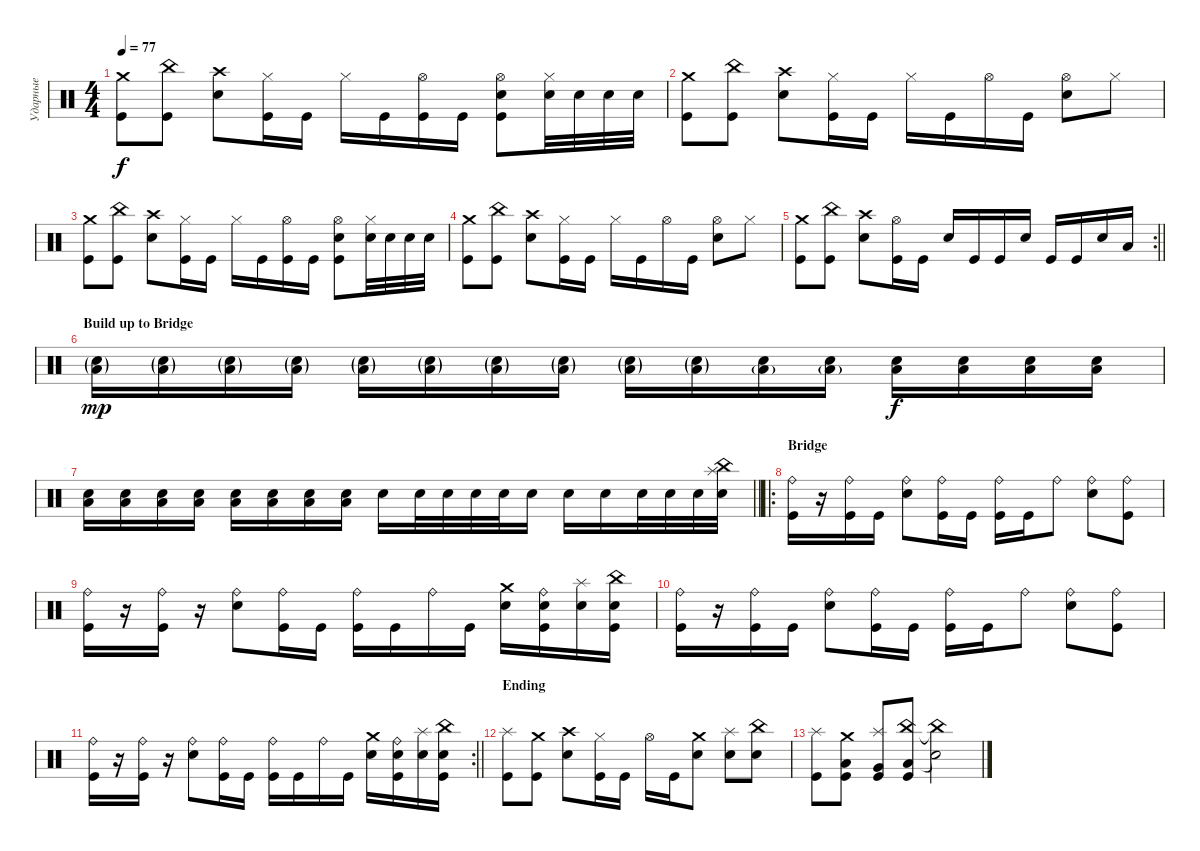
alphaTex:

\track ("Ударные" "Ударные") {instrument percussion}
\staff {score}
\articulation defaults
\ts (4 4)
\tempo 77
\clef neutral
\ks c
("Crash medium (hit)" "Kick (hit)").8{dy f} ("China (hit)" "Kick (hit)").8 ("Crash high (hit)" "Snare (hit) 2").8 ("Hi-Hat (closed)" "Kick (hit)").16 "Kick (hit)".16 "Hi-Hat (closed)".16 "Kick (hit)".16 ("Hi-Hat (open)" "Kick (hit)").16 "Kick (hit)".16 ("Hi-Hat (open)" "Snare (hit) 2" "Kick (hit)").8 ("Hi-Hat (closed)" "Snare (hit) 2").32 "Snare (hit) 2".32 "Snare (hit) 2".32 "Snare (hit) 2".32 |
("Crash medium (hit)" "Kick (hit)").8 ("China (hit)" "Kick (hit)").8 ("Crash high (hit)" "Snare (hit) 2").8 ("Hi-Hat (closed)" "Kick (hit)").16 "Kick (hit)".16 "Hi-Hat (closed)".16 "Kick (hit)".16 "Hi-Hat (open)".16 "Kick (hit)".16 ("Hi-Hat (open)" "Snare (hit) 2").8 "Hi-Hat (closed)".8 |
("Crash medium (hit)" "Kick (hit)").8 ("China (hit)" "Kick (hit)").8 ("Crash high (hit)" "Snare (hit) 2").8 ("Hi-Hat (closed)" "Kick (hit)").16 "Kick (hit)".16 "Hi-Hat (closed)".16 "Kick (hit)".16 ("Hi-Hat (open)" "Kick (hit)").16 "Kick (hit)".16 ("Hi-Hat (open)" "Snare (hit) 2" "Kick (hit)").8 ("Hi-Hat (closed)" "Snare (hit) 2").32 "Snare (hit) 2".32 "Snare (hit) 2".32 "Snare (hit) 2".32 |
("Crash medium (hit)" "Kick (hit)").8 ("China (hit)" "Kick (hit)").8 ("Crash high (hit)" "Snare (hit) 2").8 ("Hi-Hat (closed)" "Kick (hit)").16 "Kick (hit)".16 "Hi-Hat (closed)".16 "Kick (hit)".16 "Hi-Hat (open)".16 "Kick (hit)".16 ("Hi-Hat (open)" "Snare (hit) 2").8 "Hi-Hat (closed)".8 |
\rc 2
\barLineRight lightlight
("Crash medium (hit)" "Kick (hit)").8 ("China (hit)" "Kick (hit)").8 ("Crash high (hit)" "Snare (hit) 2").8 ("Hi-Hat (open)" "Kick (hit)").16 "Kick (hit)".16 "Snare (hit) 2".16 "Kick (hit)".16 "Kick (hit)".16 "Snare (hit) 2".16 "Kick (hit)".16 "Kick (hit)".16 "Snare (hit) 2".16 "Low Floor Tom (hit)".16 |
\section ("" "Build up to Bridge")
("Snare (hit) 2"{g} "Low Floor Tom (hit)"{g}).16{dy mp volume 8} ("Snare (hit) 2"{g} "Low Floor Tom (hit)"{g}).16 ("Snare (hit) 2"{g} "Low Floor Tom (hit)"{g}).16 ("Snare (hit) 2"{g} "Low Floor Tom (hit)"{g}).16 ("Snare (hit) 2"{g} "Low Floor Tom (hit)"{g}).16{volume 10} ("Snare (hit) 2"{g} "Low Floor Tom (hit)"{g}).16 ("Snare (hit) 2"{g} "Low Floor Tom (hit)"{g}).16 ("Snare (hit) 2"{g} "Low Floor Tom (hit)"{g}).16 ("Snare (hit) 2"{g} "Low Floor Tom (hit)"{g}).16{volume 12} ("Snare (hit) 2"{g} "Low Floor Tom (hit)"{g}).16 ("Snare (hit) 2" "Low Floor Tom (hit)"{g}).16 ("Snare (hit) 2" "Low Floor Tom (hit)"{g}).16 ("Snare (hit) 2" "Low Floor Tom (hit)").16{dy f volume 14} ("Snare (hit) 2" "Low Floor Tom (hit)").16 ("Snare (hit) 2" "Low Floor Tom (hit)").16 ("Snare (hit) 2" "Low Floor Tom (hit)").16 |
\barLineRight lightlight
("Snare (hit) 2" "Low Floor Tom (hit)").16{volume 16} ("Snare (hit) 2" "Low Floor Tom (hit)").16 ("Snare (hit) 2" "Low Floor Tom (hit)").16 ("Snare (hit) 2" "Low Floor Tom (hit)").16 ("Snare (hit) 2" "Low Floor Tom (hit)").16 ("Snare (hit) 2" "Low Floor Tom (hit)").16 ("Snare (hit) 2" "Low Floor Tom (hit)").16 ("Snare (hit) 2" "Low Floor Tom (hit)").16 "Snare (hit) 2".16 "Snare (hit) 2".32 "Snare (hit) 2".32 "Snare (hit) 2".32 "Snare (hit) 2".32 "Snare (hit) 2".16 "Snare (hit) 2".16 "Snare (hit) 2".16 "Snare (hit) 2".32 "Snare (hit) 2".32 "Snare (hit) 2".32 ("China (hit)" "Snare (hit) 2" "Splash (hit)").32 |
\ro
\section ("" "Bridge")
("Ride (bell)" "Kick (hit)").16 r.16 ("Ride (bell)" "Kick (hit)").16 "Kick (hit)".16 ("Ride (bell)" "Snare (hit) 2").8 ("Ride (bell)" "Kick (hit)").16 "Kick (hit)".16 ("Ride (bell)" "Kick (hit)").16 "Kick (hit)".16 "Ride (bell)".8 ("Ride (bell)" "Snare (hit) 2").8 ("Ride (bell)" "Kick (hit)").8 |
("Ride (bell)" "Kick (hit)").16 r.16 ("Ride (bell)" "Kick (hit)").16 r.16 ("Ride (bell)" "Snare (hit) 2").8 ("Ride (bell)" "Kick (hit)").16 "Kick (hit)".16 ("Ride (bell)" "Kick (hit)").16 "Kick (hit)".16 "Ride (bell)".16 "Kick (hit)".16 ("Crash medium (hit)" "Snare (hit) 2").16 ("Ride (bell)" "Snare (hit) 2" "Kick (hit)").16 ("Splash (hit)" "Snare (hit) 2").16 ("China (hit)" "Snare (hit) 2" "Kick (hit)").16 |
("Ride (bell)" "Kick (hit)").16 r.16 ("Ride (bell)" "Kick (hit)").16 "Kick (hit)".16 ("Ride (bell)" "Snare (hit) 2").8 ("Ride (bell)" "Kick (hit)").16 "Kick (hit)".16 ("Ride (bell)" "Kick (hit)").16 "Kick (hit)".16 "Ride (bell)".8 ("Ride (bell)" "Snare (hit) 2").8 ("Ride (bell)" "Kick (hit)").8 |
\rc 2
\barLineRight lightlight
("Ride (bell)" "Kick (hit)").16 r.16 ("Ride (bell)" "Kick (hit)").16 r.16 ("Ride (bell)" "Snare (hit) 2").8 ("Ride (bell)" "Kick (hit)").16 "Kick (hit)".16 ("Ride (bell)" "Kick (hit)").16 "Kick (hit)".16 "Ride (bell)".16 "Kick (hit)".16 ("Crash medium (hit)" "Snare (hit) 2").16 ("Ride (bell)" "Snare (hit) 2" "Kick (hit)").16 ("Splash (hit)" "Snare (hit) 2").16 ("China (hit)" "Snare (hit) 2" "Kick (hit)").16 |
\section ("" "Ending")
("Splash (hit)" "Kick (hit)").8 ("Crash medium (hit)" "Kick (hit)").8 ("Crash high (hit)" "Snare (hit) 2").8 ("Hi-Hat (closed)" "Kick (hit)").16 "Kick (hit)".16 "Hi-Hat (open)".16 "Kick (hit)".16 ("Crash medium (hit)" "Snare (hit) 2").8 ("Splash (hit)" "Snare (hit) 2").8 ("China (hit)" "Snare (hit) 2").8 |
("Splash (hit)" "Kick (hit)").8 ("Crash medium (hit)" "Low Tom (hit)" "Kick (hit)").8 ("Splash (hit)" "Very Low Tom (hit)" "Kick (hit)").8 ("China (hit)" "Low Floor Tom (hit)" "Kick (hit)").8 ("China (hit)"{t} "Snare (hit)"{t}).2
